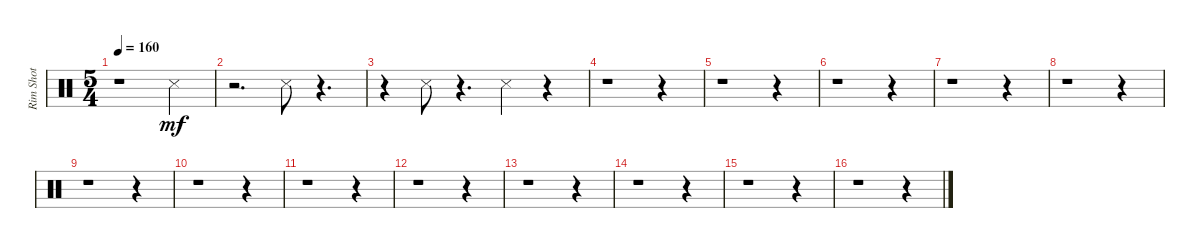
\track ("Rim Shot" "Rim Shot") {instrument percussion}
\staff {score}
\articulation defaults
\ts (5 4)
\tempo 160
\clef neutral
\ks c
r.1{dy mf} "Snare (side stick) 3".4 |
r.2{d} "Snare (side stick) 3".8 r.4{d} |
r.4 "Snare (side stick) 3".8 r.4{d} "Snare (side stick) 3".4 r.4 |
r.1 r.4 |
r.1 r.4 |
r.1 r.4 |
r.1 r.4 |
r.1 r.4 |
r.1 r.4 |
r.1 r.4 |
r.1 r.4 |
r.1 r.4 |
r.1 r.4 |
r.1 r.4 |
r.1 r.4 |
r.1 r.4
